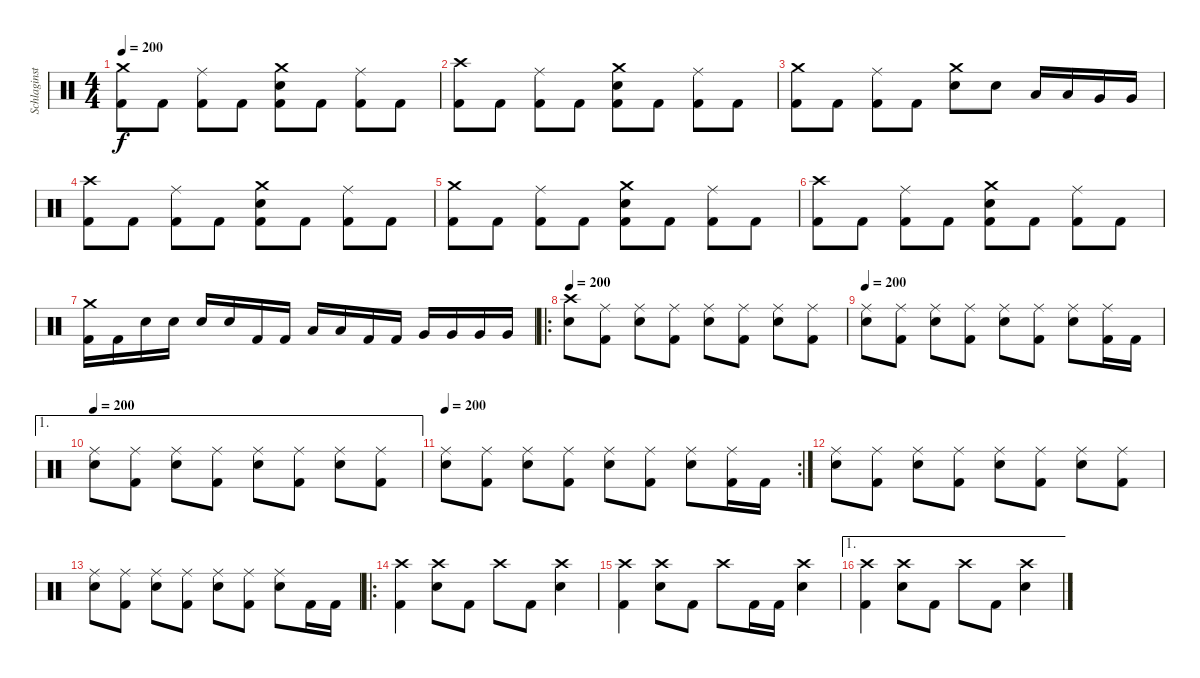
\track ("Schlaginstrumente - Auswahl" "Schlaginst") {instrument percussion}
\staff {score}
\articulation defaults
\ts (4 4)
\tempo 200
\clef neutral
\ks c
("Crash medium (hit)" "Kick (hit) 2").8{dy f} "Kick (hit) 2".8 ("Ride (middle)" "Kick (hit) 2").8 "Kick (hit) 2".8 ("Crash medium (hit)" "Electric Snare (hit)" "Kick (hit) 2").8 "Kick (hit) 2".8 ("Ride (middle)" "Kick (hit) 2").8 "Kick (hit) 2".8 |
("Crash high (hit)" "Kick (hit) 2").8 "Kick (hit) 2".8 ("Ride (middle)" "Kick (hit) 2").8 "Kick (hit) 2".8 ("Crash medium (hit)" "Electric Snare (hit)" "Kick (hit) 2").8 "Kick (hit) 2".8 ("Ride (middle)" "Kick (hit) 2").8 "Kick (hit) 2".8 |
("Crash medium (hit)" "Kick (hit) 2").8 "Kick (hit) 2".8 ("Ride (middle)" "Kick (hit) 2").8 "Kick (hit) 2".8 ("Crash medium (hit)" "Electric Snare (hit)").8 "Electric Snare (hit)".8 "Low Tom (hit)".16 "Low Tom (hit)".16 "Very Low Tom (hit)".16 "Very Low Tom (hit)".16 |
("Crash high (hit)" "Kick (hit) 2").8 "Kick (hit) 2".8 ("Ride (middle)" "Kick (hit) 2").8 "Kick (hit) 2".8 ("Crash medium (hit)" "Electric Snare (hit)" "Kick (hit) 2").8 "Kick (hit) 2".8 ("Ride (middle)" "Kick (hit) 2").8 "Kick (hit) 2".8 |
("Crash medium (hit)" "Kick (hit) 2").8 "Kick (hit) 2".8 ("Ride (middle)" "Kick (hit) 2").8 "Kick (hit) 2".8 ("Crash medium (hit)" "Electric Snare (hit)" "Kick (hit) 2").8 "Kick (hit) 2".8 ("Ride (middle)" "Kick (hit) 2").8 "Kick (hit) 2".8 |
("Crash high (hit)" "Kick (hit) 2").8 "Kick (hit) 2".8 ("Ride (middle)" "Kick (hit) 2").8 "Kick (hit) 2".8 ("Crash medium (hit)" "Electric Snare (hit)" "Kick (hit) 2").8 "Kick (hit) 2".8 ("Ride (middle)" "Kick (hit) 2").8 "Kick (hit) 2".8 |
("Crash medium (hit)" "Kick (hit) 2").16 "Kick (hit) 2".16 "Electric Snare (hit)".16 "Electric Snare (hit)".16 "Electric Snare (hit)".16 "Electric Snare (hit)".16 "Kick (hit) 2".16 "Kick (hit) 2".16 "Low Tom (hit)".16 "Low Tom (hit)".16 "Kick (hit) 2".16 "Kick (hit) 2".16 "Very Low Tom (hit)".16 "Very Low Tom (hit)".16 "Very Low Tom (hit)".16 "Very Low Tom (hit)".16 |
\ro
\tempo 200
("Crash high (hit)" "Electric Snare (hit)").8 ("Ride (middle)" "Kick (hit) 2").8 ("Ride (middle)" "Electric Snare (hit)").8 ("Ride (middle)" "Kick (hit) 2").8 ("Ride (middle)" "Electric Snare (hit)").8 ("Ride (middle)" "Kick (hit) 2").8 ("Ride (middle)" "Electric Snare (hit)").8 ("Ride (middle)" "Kick (hit) 2").8 |
\tempo 200
("Ride (middle)" "Electric Snare (hit)").8 ("Ride (middle)" "Kick (hit) 2").8 ("Ride (middle)" "Electric Snare (hit)").8 ("Ride (middle)" "Kick (hit) 2").8 ("Ride (middle)" "Electric Snare (hit)").8 ("Ride (middle)" "Kick (hit) 2").8 ("Ride (middle)" "Electric Snare (hit)").8 ("Ride (middle)" "Kick (hit) 2").16 "Kick (hit) 2".16 |
\ae 1
\tempo 200
("Ride (middle)" "Electric Snare (hit)").8 ("Ride (middle)" "Kick (hit) 2").8 ("Ride (middle)" "Electric Snare (hit)").8 ("Ride (middle)" "Kick (hit) 2").8 ("Ride (middle)" "Electric Snare (hit)").8 ("Ride (middle)" "Kick (hit) 2").8 ("Ride (middle)" "Electric Snare (hit)").8 ("Ride (middle)" "Kick (hit) 2").8 |
\rc 2
\tempo 200
("Ride (middle)" "Electric Snare (hit)").8 ("Ride (middle)" "Kick (hit) 2").8 ("Ride (middle)" "Electric Snare (hit)").8 ("Ride (middle)" "Kick (hit) 2").8 ("Ride (middle)" "Electric Snare (hit)").8 ("Ride (middle)" "Kick (hit) 2").8 ("Ride (middle)" "Electric Snare (hit)").8 ("Ride (middle)" "Kick (hit) 2").16 "Kick (hit) 2".16 |
("Ride (middle)" "Electric Snare (hit)").8 ("Ride (middle)" "Kick (hit) 2").8 ("Ride (middle)" "Electric Snare (hit)").8 ("Ride (middle)" "Kick (hit) 2").8 ("Ride (middle)" "Electric Snare (hit)").8 ("Ride (middle)" "Kick (hit) 2").8 ("Ride (middle)" "Electric Snare (hit)").8 ("Ride (middle)" "Kick (hit) 2").8 |
("Ride (middle)" "Electric Snare (hit)").8 ("Ride (middle)" "Kick (hit) 2").8 ("Ride (middle)" "Electric Snare (hit)").8 ("Ride (middle)" "Kick (hit) 2").8 ("Ride (middle)" "Electric Snare (hit)").8 ("Ride (middle)" "Kick (hit) 2").8 ("Ride (middle)" "Electric Snare (hit)").8 "Kick (hit) 2".16 "Kick (hit) 2".16 |
\ro
("Crash high (hit)" "Kick (hit) 2").4 ("Crash high (hit)" "Electric Snare (hit)").8 "Kick (hit) 2".8 "Crash high (hit)".8 "Kick (hit) 2".8 ("Crash high (hit)" "Electric Snare (hit)").4 |
("Crash high (hit)" "Kick (hit) 2").4 ("Crash high (hit)" "Electric Snare (hit)").8 "Kick (hit) 2".8 "Crash high (hit)".8 "Kick (hit) 2".16 "Kick (hit) 2".16 ("Crash high (hit)" "Electric Snare (hit)").4 |
\ae 1
("Crash high (hit)" "Kick (hit) 2").4 ("Crash high (hit)" "Electric Snare (hit)").8 "Kick (hit) 2".8 "Crash high (hit)".8 "Kick (hit) 2".8 ("Crash high (hit)" "Electric Snare (hit)").4
